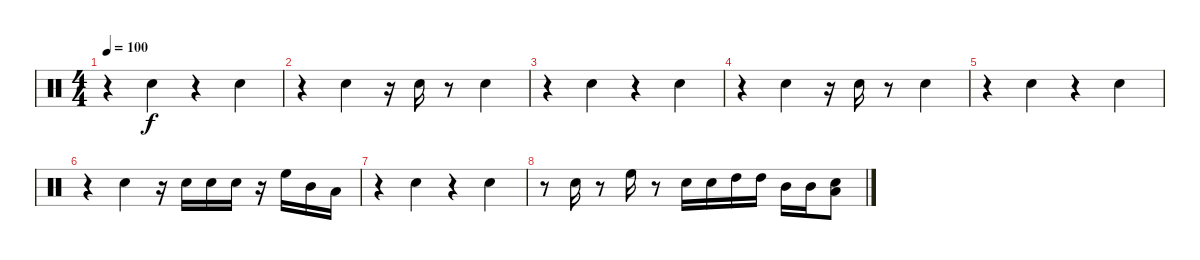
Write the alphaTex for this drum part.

\track "" {instrument percussion}
\staff {score}
\articulation defaults
\ts (4 4)
\tempo 100
\clef neutral
\ks c
r.4{dy f} "Electric Snare (hit)".4 r.4 "Electric Snare (hit)".4 |
r.4 "Electric Snare (hit)".4 r.16 "Electric Snare (hit)".16 r.8 "Electric Snare (hit)".4 |
r.4 "Electric Snare (hit)".4 r.4 "Electric Snare (hit)".4 |
r.4 "Electric Snare (hit)".4 r.16 "Electric Snare (hit)".16 r.8 "Electric Snare (hit)".4 |
r.4 "Electric Snare (hit)".4 r.4 "Electric Snare (hit)".4 |
r.4 "Electric Snare (hit)".4 r.16 "Electric Snare (hit)".16 "Electric Snare (hit)".16 "Electric Snare (hit)".16 r.16 "High Floor Tom (hit)".16 "Mid Tom (hit)".16 "Low Tom (hit)".16 |
r.4 "Electric Snare (hit)".4 r.4 "Electric Snare (hit)".4 |
r.8 "Electric Snare (hit)".16 r.8 "High Floor Tom (hit)".16 r.8 "Electric Snare (hit)".16 "Electric Snare (hit)".16 "High Tom (hit)".16 "High Tom (hit)".16 "Mid Tom (hit)".16 "Mid Tom (hit)".16 ("Low Tom (hit)" "Electric Snare (hit)").8
